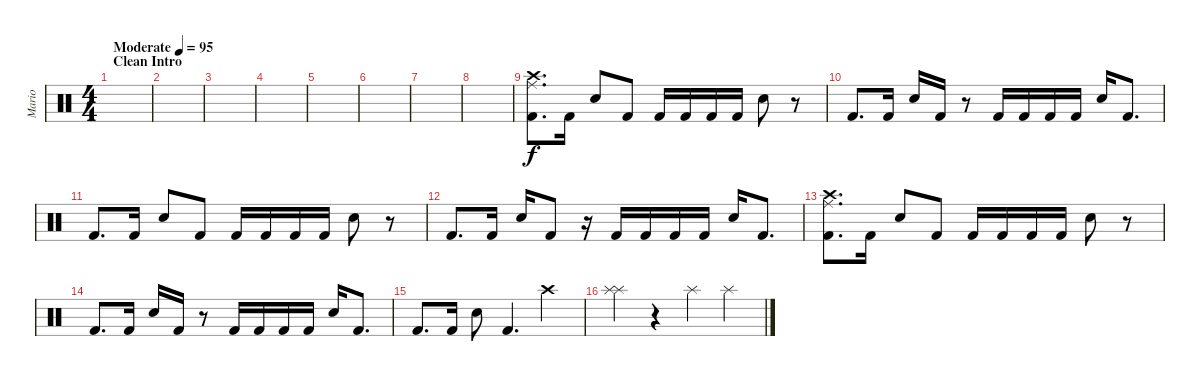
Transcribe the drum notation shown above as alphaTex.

\track ("Mario" "Mario") {instrument percussion}
\staff {score}
\articulation defaults
\ts (4 4)
\section ("" "Clean Intro")
\tempo (95 "Moderate")
\clef neutral
\ks c
|
|
|
|
|
|
|
|
("Crash high (hit)" "Ride (middle)" "Kick (hit) 2").8{d} "Kick (hit) 2".16 "Electric Snare (hit)".8 "Kick (hit) 2".8 "Kick (hit) 2".16 "Kick (hit) 2".16 "Kick (hit) 2".16 "Kick (hit) 2".16 "Electric Snare (hit)".8 r.8 |
"Kick (hit) 2".8{d} "Kick (hit) 2".16 "Electric Snare (hit)".16 "Kick (hit) 2".16 r.8 "Kick (hit) 2".16 "Kick (hit) 2".16 "Kick (hit) 2".16 "Kick (hit) 2".16 "Electric Snare (hit)".16 "Kick (hit) 2".8{d} |
"Kick (hit) 2".8{d} "Kick (hit) 2".16 "Electric Snare (hit)".8 "Kick (hit) 2".8 "Kick (hit) 2".16 "Kick (hit) 2".16 "Kick (hit) 2".16 "Kick (hit) 2".16 "Electric Snare (hit)".8 r.8 |
"Kick (hit) 2".8{d} "Kick (hit) 2".16 "Electric Snare (hit)".16 "Kick (hit) 2".8 r.16 "Kick (hit) 2".16 "Kick (hit) 2".16 "Kick (hit) 2".16 "Kick (hit) 2".16 "Electric Snare (hit)".16 "Kick (hit) 2".8{d} |
("Crash high (hit)" "Ride (middle)" "Kick (hit) 2").8{d} "Kick (hit) 2".16 "Electric Snare (hit)".8 "Kick (hit) 2".8 "Kick (hit) 2".16 "Kick (hit) 2".16 "Kick (hit) 2".16 "Kick (hit) 2".16 "Electric Snare (hit)".8 r.8 |
"Kick (hit) 2".8{d} "Kick (hit) 2".16 "Electric Snare (hit)".16 "Kick (hit) 2".16 r.8 "Kick (hit) 2".16 "Kick (hit) 2".16 "Kick (hit) 2".16 "Kick (hit) 2".16 "Electric Snare (hit)".16 "Kick (hit) 2".8{d} |
"Kick (hit) 2".8{d} "Kick (hit) 2".16 "Electric Snare (hit)".8 "Kick (hit) 2".4{d} "Crash high (hit)".4 |
("Splash (hit)" "Splash (hit)").4 r.4 "Splash (hit)".4 "Splash (hit)".4
